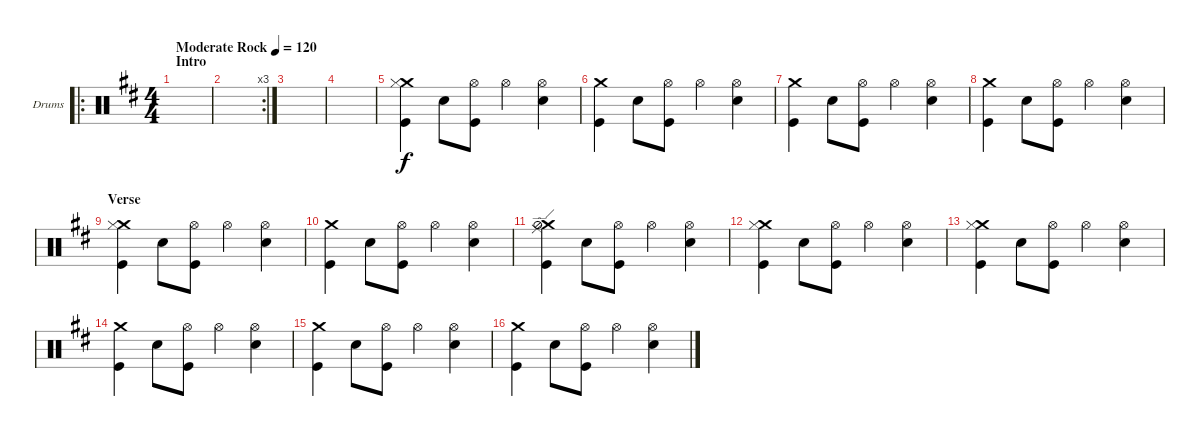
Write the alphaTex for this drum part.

\defaultSystemsLayout 4
\bracketExtendMode groupsimilarinstruments
\firstSystemTrackNameOrientation horizontal
\otherSystemsTrackNameOrientation horizontal
\track ("Drumkit" "Drums") {instrument percussion}
\staff {score}
\articulation defaults
\ro
\ts (4 4)
\section ("" "Intro")
\tempo (120 "Moderate Rock")
\clef neutral
\scale
1.16141
\ks d
|
\rc 3
\scale
0.919294 |
\scale
0.919294 |
\scale
1.10088 |
\scale
0.949559 ("Crash medium (hit)" "Kick (hit)" "Hi-Hat (closed)").4 "Snare (hit) 2".8 ("Hi-Hat (open)" "Kick (hit)").8 "Hi-Hat (open)".4 ("Hi-Hat (open)" "Snare (hit) 2").4 |
\scale
0.949559 ("Crash medium (hit)" "Kick (hit)").4 "Snare (hit) 2".8 ("Hi-Hat (open)" "Kick (hit)").8 "Hi-Hat (open)".4 ("Hi-Hat (open)" "Snare (hit) 2").4 |
\scale
1.10088 ("Crash medium (hit)" "Kick (hit)").4 "Snare (hit) 2".8 ("Hi-Hat (open)" "Kick (hit)").8 "Hi-Hat (open)".4 ("Hi-Hat (open)" "Snare (hit) 2").4 |
\scale
0.949559 ("Crash medium (hit)" "Kick (hit)").4 "Snare (hit) 2".8 ("Hi-Hat (open)" "Kick (hit)").8 "Hi-Hat (open)".4 ("Hi-Hat (open)" "Snare (hit) 2").4 |
\section ("" "Verse")
\scale
0.949559 ("Crash medium (hit)" "Kick (hit)" "Hi-Hat (closed)").4 "Snare (hit) 2".8 ("Hi-Hat (open)" "Kick (hit)").8 "Hi-Hat (open)".4 ("Hi-Hat (open)" "Snare (hit) 2").4 |
\scale
1.10088 ("Crash medium (hit)" "Kick (hit)").4 "Snare (hit) 2".8 ("Hi-Hat (open)" "Kick (hit)").8 "Hi-Hat (open)".4 ("Hi-Hat (open)" "Snare (hit) 2").4 |
\scale
0.949559 ("Crash medium (hit)" "Kick (hit)" "Ride (edge)" "Hi-Hat (half)").4 "Snare (hit) 2".8 ("Hi-Hat (open)" "Kick (hit)").8 "Hi-Hat (open)".4 ("Hi-Hat (open)" "Snare (hit) 2").4 |
\scale
0.949559 ("Crash medium (hit)" "Kick (hit)" "Hi-Hat (closed)").4 "Snare (hit) 2".8 ("Hi-Hat (open)" "Kick (hit)").8 "Hi-Hat (open)".4 ("Hi-Hat (open)" "Snare (hit) 2").4 |
\scale
1.10088 ("Crash medium (hit)" "Kick (hit)" "Hi-Hat (closed)").4 "Snare (hit) 2".8 ("Hi-Hat (open)" "Kick (hit)").8 "Hi-Hat (open)".4 ("Hi-Hat (open)" "Snare (hit) 2").4 |
\scale
0.949559 ("Crash medium (hit)" "Kick (hit)").4 "Snare (hit) 2".8 ("Hi-Hat (open)" "Kick (hit)").8 "Hi-Hat (open)".4 ("Hi-Hat (open)" "Snare (hit) 2").4 |
\scale
0.949559 ("Crash medium (hit)" "Kick (hit)").4 "Snare (hit) 2".8 ("Hi-Hat (open)" "Kick (hit)").8 "Hi-Hat (open)".4 ("Hi-Hat (open)" "Snare (hit) 2").4 |
\scale
1.10088 ("Crash medium (hit)" "Kick (hit)").4 "Snare (hit) 2".8 ("Hi-Hat (open)" "Kick (hit)").8 "Hi-Hat (open)".4 ("Hi-Hat (open)" "Snare (hit) 2").4
